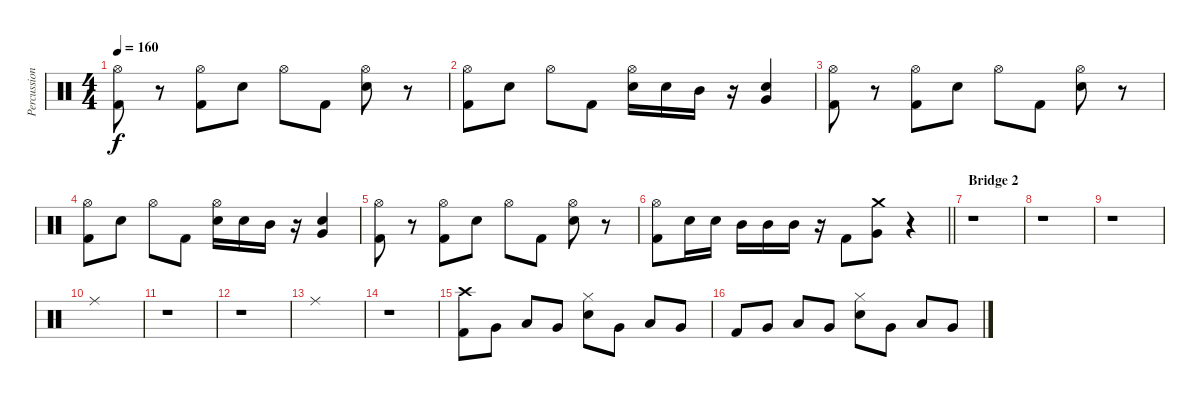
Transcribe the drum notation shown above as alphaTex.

\track ("Percussion" "Percussion") {instrument percussion}
\staff {score}
\articulation defaults
\ts (4 4)
\tempo 160
\clef neutral
\ks c
("Hi-Hat (open)" "Kick (hit) 2").8{dy f} r.8 ("Hi-Hat (open)" "Kick (hit) 2").8 "Electric Snare (hit)".8 "Hi-Hat (open)".8 "Kick (hit) 2".8 ("Hi-Hat (open)" "Electric Snare (hit)").8 r.8 |
("Hi-Hat (open)" "Kick (hit) 2").8 "Electric Snare (hit)".8 "Hi-Hat (open)".8 "Kick (hit) 2".8 ("Hi-Hat (open)" "Electric Snare (hit)").16 "Electric Snare (hit)".16 "Mid Tom (hit)".16 r.16 ("Very Low Tom (hit)" "Electric Snare (hit)").4 |
("Hi-Hat (open)" "Kick (hit) 2").8 r.8 ("Hi-Hat (open)" "Kick (hit) 2").8 "Electric Snare (hit)".8 "Hi-Hat (open)".8 "Kick (hit) 2".8 ("Hi-Hat (open)" "Electric Snare (hit)").8 r.8 |
("Hi-Hat (open)" "Kick (hit) 2").8 "Electric Snare (hit)".8 "Hi-Hat (open)".8 "Kick (hit) 2".8 ("Hi-Hat (open)" "Electric Snare (hit)").16 "Electric Snare (hit)".16 "Mid Tom (hit)".16 r.16 ("Very Low Tom (hit)" "Electric Snare (hit)").4 |
("Hi-Hat (open)" "Kick (hit) 2").8 r.8 ("Hi-Hat (open)" "Kick (hit) 2").8 "Electric Snare (hit)".8 "Hi-Hat (open)".8 "Kick (hit) 2".8 ("Hi-Hat (open)" "Electric Snare (hit)").8 r.8 |
\barLineRight lightlight
("Hi-Hat (open)" "Kick (hit) 2").8 "Electric Snare (hit)".16 "Electric Snare (hit)".16 "Mid Tom (hit)".16 "Mid Tom (hit)".16 "Mid Tom (hit)".16 r.16 "Kick (hit) 2".8 ("Crash medium (hit)" "Very Low Tom (hit)").8 r.4 |
\section ("" "Bridge 2")
r.1 |
r.1 |
r.1 |
"Ride (middle)".1 |
r.1 |
r.1 |
"Ride (middle)".1 |
r.1 |
("Crash high (hit)" "Kick (hit) 2").8 "Very Low Tom (hit)".8 "Low Floor Tom (hit)".8 "Very Low Tom (hit)".8 ("Hi-Hat (closed)" "Electric Snare (hit)").8 "Very Low Tom (hit)".8 "Low Floor Tom (hit)".8 "Very Low Tom (hit)".8 |
"Kick (hit) 2".8 "Very Low Tom (hit)".8 "Low Floor Tom (hit)".8 "Very Low Tom (hit)".8 ("Hi-Hat (closed)" "Electric Snare (hit)").8 "Very Low Tom (hit)".8 "Low Floor Tom (hit)".8 "Very Low Tom (hit)".8
